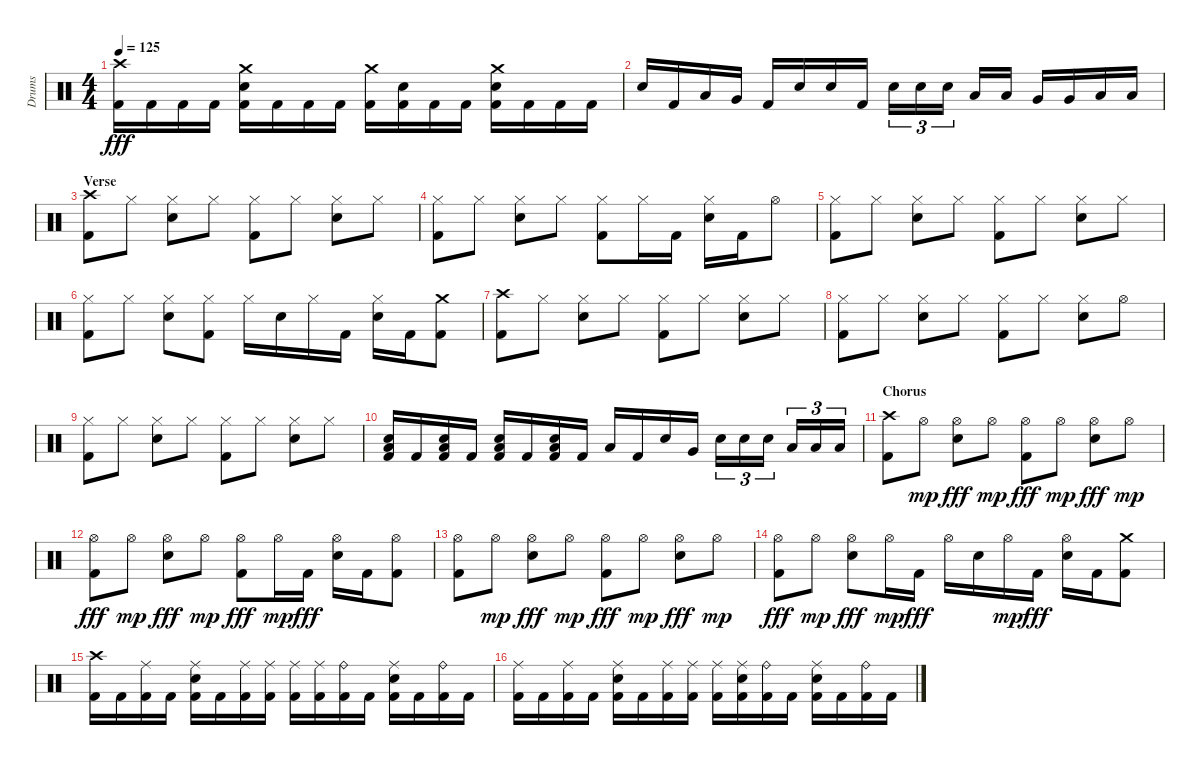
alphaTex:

\track ("Drums" "Drums") {instrument percussion}
\staff {score}
\articulation defaults
\ts (4 4)
\tempo 125
\clef neutral
\ks aminor
("Kick (hit) 2" "Crash high (hit)").16{dy fff} "Kick (hit) 2".16 "Kick (hit) 2".16 "Kick (hit) 2".16 ("Kick (hit) 2" "Snare (hit) 2" "Crash medium (hit)").16 "Kick (hit) 2".16 "Kick (hit) 2".16 "Kick (hit) 2".16 ("Kick (hit) 2" "Crash medium (hit)").16 ("Kick (hit) 2" "Snare (hit) 2").16 "Kick (hit) 2".16 "Kick (hit) 2".16 ("Kick (hit) 2" "Snare (hit) 2" "Crash medium (hit)").16 "Kick (hit) 2".16 "Kick (hit) 2".16 "Kick (hit) 2".16 |
"Snare (hit) 2".16 "Kick (hit) 2".16 "Low Tom (hit)".16 "Very Low Tom (hit)".16 "Kick (hit) 2".16 "Snare (hit) 2".16 "Snare (hit) 2".16 "Kick (hit) 2".16 "Snare (hit) 2".16{tu (3 2)} "Snare (hit) 2".16{tu (3 2)} "Snare (hit) 2".16{tu (3 2)} "Low Tom (hit)".16 "Low Tom (hit)".16 "Very Low Tom (hit)".16 "Very Low Tom (hit)".16 "Low Floor Tom (hit)".16 "Low Floor Tom (hit)".16 |
\section ("" "Verse")
("Kick (hit) 2" "Crash high (hit)").8 "Hi-Hat (closed)".8 ("Snare (hit) 2" "Hi-Hat (closed)").8 "Hi-Hat (closed)".8 ("Kick (hit) 2" "Hi-Hat (closed)").8 "Hi-Hat (closed)".8 ("Snare (hit) 2" "Hi-Hat (closed)").8 "Hi-Hat (closed)".8 |
("Kick (hit) 2" "Hi-Hat (closed)").8 "Hi-Hat (closed)".8 ("Snare (hit) 2" "Hi-Hat (closed)").8 "Hi-Hat (closed)".8 ("Kick (hit) 2" "Hi-Hat (closed)").8 "Hi-Hat (closed)".16 "Kick (hit) 2".16 ("Snare (hit) 2" "Hi-Hat (closed)").16 "Kick (hit) 2".16 "Hi-Hat (open)".8 |
("Kick (hit) 2" "Hi-Hat (closed)").8 "Hi-Hat (closed)".8 ("Snare (hit) 2" "Hi-Hat (closed)").8 "Hi-Hat (closed)".8 ("Kick (hit) 2" "Hi-Hat (closed)").8 "Hi-Hat (closed)".8 ("Snare (hit) 2" "Hi-Hat (closed)").8 "Hi-Hat (closed)".8 |
("Kick (hit) 2" "Hi-Hat (closed)").8 "Hi-Hat (closed)".8 ("Snare (hit) 2" "Hi-Hat (closed)").8 ("Kick (hit) 2" "Hi-Hat (closed)").8 "Hi-Hat (closed)".16 "Snare (hit) 2".16 "Hi-Hat (closed)".16 "Kick (hit) 2".16 ("Snare (hit) 2" "Hi-Hat (closed)").16 "Kick (hit) 2".16 ("Kick (hit) 2" "Crash medium (hit)").8 |
("Kick (hit) 2" "Crash high (hit)").8 "Hi-Hat (closed)".8 ("Snare (hit) 2" "Hi-Hat (closed)").8 "Hi-Hat (closed)".8 ("Kick (hit) 2" "Hi-Hat (closed)").8 "Hi-Hat (closed)".8 ("Snare (hit) 2" "Hi-Hat (closed)").8 "Hi-Hat (closed)".8 |
("Kick (hit) 2" "Hi-Hat (closed)").8 "Hi-Hat (closed)".8 ("Snare (hit) 2" "Hi-Hat (closed)").8 "Hi-Hat (closed)".8 ("Kick (hit) 2" "Hi-Hat (closed)").8 "Hi-Hat (closed)".8 ("Snare (hit) 2" "Hi-Hat (closed)").8 "Hi-Hat (open)".8 |
("Kick (hit) 2" "Hi-Hat (closed)").8 "Hi-Hat (closed)".8 ("Snare (hit) 2" "Hi-Hat (closed)").8 "Hi-Hat (closed)".8 ("Kick (hit) 2" "Hi-Hat (closed)").8 "Hi-Hat (closed)".8 ("Snare (hit) 2" "Hi-Hat (closed)").8 "Hi-Hat (closed)".8 |
("Kick (hit) 2" "Snare (hit) 2" "Low Floor Tom (hit)").16 "Kick (hit) 2".16 ("Kick (hit) 2" "Snare (hit) 2" "Low Floor Tom (hit)").16 "Kick (hit) 2".16 ("Kick (hit) 2" "Snare (hit) 2" "Low Floor Tom (hit)").16 "Kick (hit) 2".16 ("Kick (hit) 2" "Snare (hit) 2" "Low Floor Tom (hit)").16 "Kick (hit) 2".16 "Low Tom (hit)".16 "Kick (hit) 2".16 "Snare (hit) 2".16 "Very Low Tom (hit)".16 "Snare (hit) 2".16{tu (3 2)} "Snare (hit) 2".16{tu (3 2)} "Snare (hit) 2".16{tu (3 2)} "Low Floor Tom (hit)".16{tu (3 2)} "Low Floor Tom (hit)".16{tu (3 2)} "Low Floor Tom (hit)".16{tu (3 2)} |
\section ("" "Chorus")
("Kick (hit) 2" "Crash high (hit)").8 "Hi-Hat (open)".8{dy mp} ("Snare (hit) 2" "Hi-Hat (open)").8{dy fff} "Hi-Hat (open)".8{dy mp} ("Kick (hit) 2" "Hi-Hat (open)").8{dy fff} "Hi-Hat (open)".8{dy mp} ("Snare (hit) 2" "Hi-Hat (open)").8{dy fff} "Hi-Hat (open)".8{dy mp} |
("Kick (hit) 2" "Hi-Hat (open)").8{dy fff} "Hi-Hat (open)".8{dy mp} ("Snare (hit) 2" "Hi-Hat (open)").8{dy fff} "Hi-Hat (open)".8{dy mp} ("Kick (hit) 2" "Hi-Hat (open)").8{dy fff} "Hi-Hat (open)".16{dy mp} "Kick (hit) 2".16{dy fff} ("Snare (hit) 2" "Hi-Hat (open)").16 "Kick (hit) 2".16 ("Kick (hit) 2" "Hi-Hat (open)").8 |
("Kick (hit) 2" "Hi-Hat (open)").8 "Hi-Hat (open)".8{dy mp} ("Snare (hit) 2" "Hi-Hat (open)").8{dy fff} "Hi-Hat (open)".8{dy mp} ("Kick (hit) 2" "Hi-Hat (open)").8{dy fff} "Hi-Hat (open)".8{dy mp} ("Snare (hit) 2" "Hi-Hat (open)").8{dy fff} "Hi-Hat (open)".8{dy mp} |
("Kick (hit) 2" "Hi-Hat (open)").8{dy fff} "Hi-Hat (open)".8{dy mp} ("Snare (hit) 2" "Hi-Hat (open)").8{dy fff} "Hi-Hat (open)".16{dy mp} "Kick (hit) 2".16{dy fff} "Hi-Hat (open)".16 "Snare (hit) 2".16 "Hi-Hat (open)".16{dy mp} "Kick (hit) 2".16{dy fff} ("Snare (hit) 2" "Hi-Hat (open)").16 "Kick (hit) 2".16 ("Kick (hit) 2" "Crash medium (hit)").8 |
("Kick (hit) 2" "Crash high (hit)").16 "Kick (hit) 2".16 ("Kick (hit) 2" "Ride (middle)").16 "Kick (hit) 2".16 ("Kick (hit) 2" "Snare (hit) 2" "Ride (middle)").16 "Kick (hit) 2".16 ("Kick (hit) 2" "Ride (middle)").16 ("Kick (hit) 2" "Ride (middle)").16 ("Kick (hit) 2" "Ride (middle)").16 ("Kick (hit) 2" "Ride (middle)").16 ("Kick (hit) 2" "Ride (bell)").16 "Kick (hit) 2".16 ("Kick (hit) 2" "Snare (hit) 2" "Ride (middle)").16 "Kick (hit) 2".16 ("Kick (hit) 2" "Ride (bell)").16 "Kick (hit) 2".16 |
("Kick (hit) 2" "Ride (middle)").16 "Kick (hit) 2".16 ("Kick (hit) 2" "Ride (middle)").16 "Kick (hit) 2".16 ("Kick (hit) 2" "Snare (hit) 2" "Ride (middle)").16 "Kick (hit) 2".16 ("Kick (hit) 2" "Ride (middle)").16 ("Kick (hit) 2" "Ride (middle)").16 ("Kick (hit) 2" "Ride (middle)").16 ("Kick (hit) 2" "Snare (hit) 2" "Ride (middle)").16 ("Kick (hit) 2" "Ride (bell)").16 "Kick (hit) 2".16 ("Kick (hit) 2" "Snare (hit) 2" "Ride (middle)").16 "Kick (hit) 2".16 ("Kick (hit) 2" "Ride (bell)").16 "Kick (hit) 2".16
